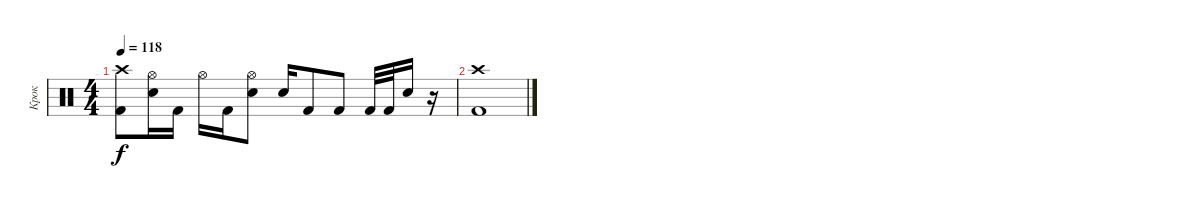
\track ("Крок" "Крок") {instrument percussion}
\staff {score}
\articulation defaults
\ts (4 4)
\tempo 118
\clef neutral
\ks c
("Kick (hit) 2" "Crash high (hit)").8{dy f} ("Electric Snare (hit)" "Hi-Hat (open)").16 "Kick (hit) 2".16 "Hi-Hat (open)".16 "Kick (hit) 2".16 ("Electric Snare (hit)" "Hi-Hat (open)").8 "Electric Snare (hit)".16 "Kick (hit) 2".8 "Kick (hit) 2".8 "Kick (hit) 2".32 "Kick (hit) 2".32 "Electric Snare (hit)".16 r.16 |
("Crash high (hit)" "Kick (hit) 2").1
